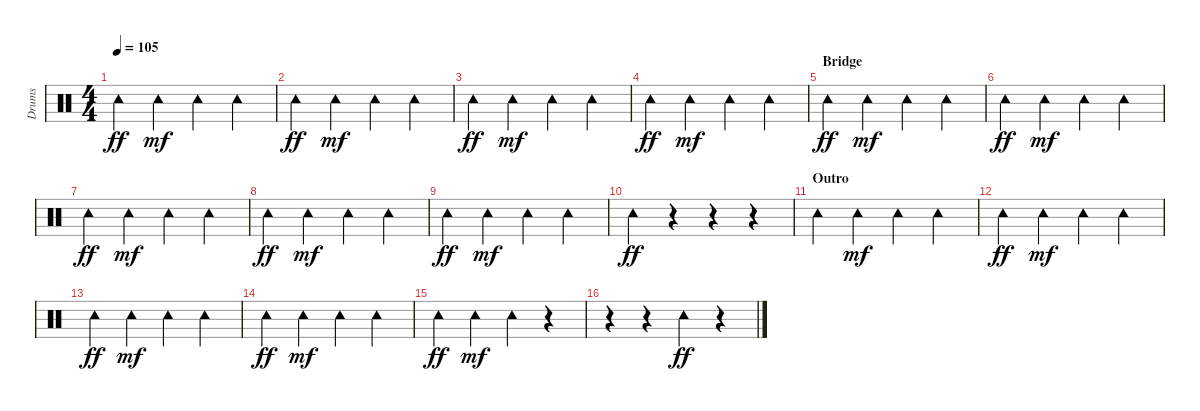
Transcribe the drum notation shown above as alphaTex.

\track ("Drums" "Drums") {instrument percussion}
\staff {score}
\articulation defaults
\ts (4 4)
\tempo 105
\clef neutral
\ks c "Tambourine (hit)".4{dy ff} "Tambourine (hit)".4{dy mf} "Tambourine (hit)".4 "Tambourine (hit)".4
|
"Tambourine (hit)".4{dy ff} "Tambourine (hit)".4{dy mf} "Tambourine (hit)".4 "Tambourine (hit)".4 |
"Tambourine (hit)".4{dy ff} "Tambourine (hit)".4{dy mf} "Tambourine (hit)".4 "Tambourine (hit)".4 |
"Tambourine (hit)".4{dy ff} "Tambourine (hit)".4{dy mf} "Tambourine (hit)".4 "Tambourine (hit)".4 |
\section ("" "Bridge")
"Tambourine (hit)".4{dy ff} "Tambourine (hit)".4{dy mf} "Tambourine (hit)".4 "Tambourine (hit)".4 |
"Tambourine (hit)".4{dy ff} "Tambourine (hit)".4{dy mf} "Tambourine (hit)".4 "Tambourine (hit)".4 |
"Tambourine (hit)".4{dy ff} "Tambourine (hit)".4{dy mf} "Tambourine (hit)".4 "Tambourine (hit)".4 |
"Tambourine (hit)".4{dy ff} "Tambourine (hit)".4{dy mf} "Tambourine (hit)".4 "Tambourine (hit)".4 |
"Tambourine (hit)".4{dy ff} "Tambourine (hit)".4{dy mf} "Tambourine (hit)".4 "Tambourine (hit)".4 |
"Tambourine (hit)".4{dy ff} r.4 r.4 r.4 |
\section ("" "Outro")
"Tambourine (hit)".4 "Tambourine (hit)".4{dy mf} "Tambourine (hit)".4 "Tambourine (hit)".4 |
"Tambourine (hit)".4{dy ff} "Tambourine (hit)".4{dy mf} "Tambourine (hit)".4 "Tambourine (hit)".4 |
"Tambourine (hit)".4{dy ff} "Tambourine (hit)".4{dy mf} "Tambourine (hit)".4 "Tambourine (hit)".4 |
"Tambourine (hit)".4{dy ff} "Tambourine (hit)".4{dy mf} "Tambourine (hit)".4 "Tambourine (hit)".4 |
"Tambourine (hit)".4{dy ff} "Tambourine (hit)".4{dy mf} "Tambourine (hit)".4 r.4 |
r.4 r.4 "Tambourine (hit)".4{dy ff} r.4
